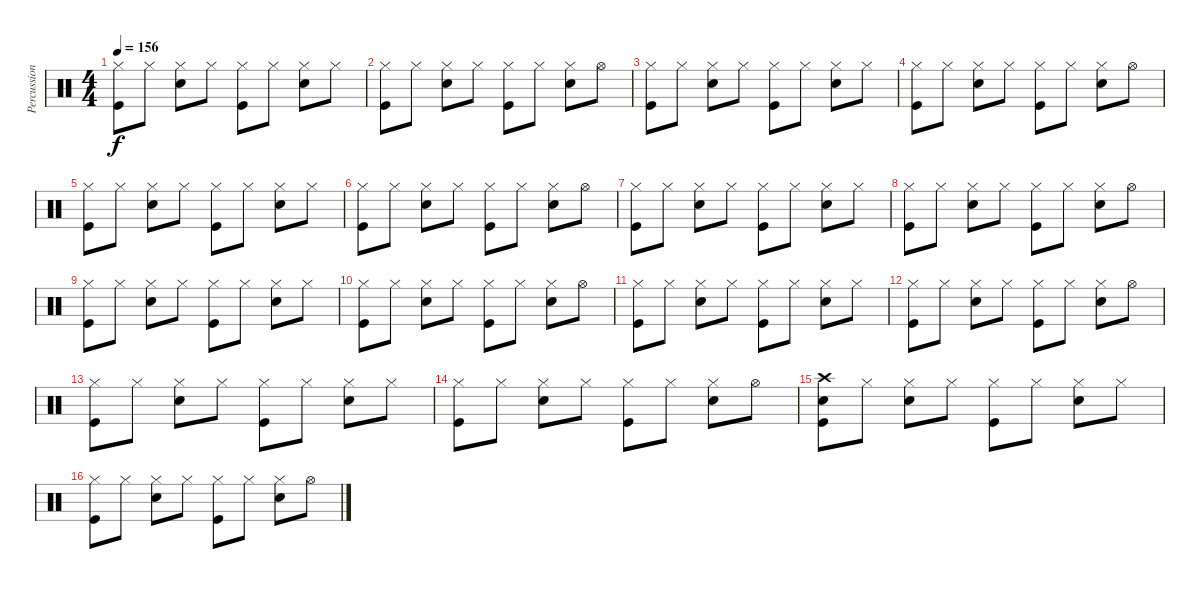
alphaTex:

\track ("Percussion" "Percussion") {instrument percussion}
\staff {score}
\articulation defaults
\ts (4 4)
\tempo 156
\clef neutral
\ks c
("Kick (hit)" "Hi-Hat (closed)").8{dy f} "Hi-Hat (closed)".8 ("Electric Snare (hit)" "Hi-Hat (closed)").8 "Hi-Hat (closed)".8 ("Kick (hit)" "Hi-Hat (closed)").8 "Hi-Hat (closed)".8 ("Electric Snare (hit)" "Hi-Hat (closed)").8 "Hi-Hat (closed)".8 |
("Kick (hit)" "Hi-Hat (closed)").8 "Hi-Hat (closed)".8 ("Electric Snare (hit)" "Hi-Hat (closed)").8 "Hi-Hat (closed)".8 ("Kick (hit)" "Hi-Hat (closed)").8 "Hi-Hat (closed)".8 ("Electric Snare (hit)" "Hi-Hat (closed)").8 "Hi-Hat (open)".8 |
("Kick (hit)" "Hi-Hat (closed)").8 "Hi-Hat (closed)".8 ("Electric Snare (hit)" "Hi-Hat (closed)").8 "Hi-Hat (closed)".8 ("Kick (hit)" "Hi-Hat (closed)").8 "Hi-Hat (closed)".8 ("Electric Snare (hit)" "Hi-Hat (closed)").8 "Hi-Hat (closed)".8 |
("Kick (hit)" "Hi-Hat (closed)").8 "Hi-Hat (closed)".8 ("Electric Snare (hit)" "Hi-Hat (closed)").8 "Hi-Hat (closed)".8 ("Kick (hit)" "Hi-Hat (closed)").8 "Hi-Hat (closed)".8 ("Electric Snare (hit)" "Hi-Hat (closed)").8 "Hi-Hat (open)".8 |
("Kick (hit)" "Hi-Hat (closed)").8 "Hi-Hat (closed)".8 ("Electric Snare (hit)" "Hi-Hat (closed)").8 "Hi-Hat (closed)".8 ("Kick (hit)" "Hi-Hat (closed)").8 "Hi-Hat (closed)".8 ("Electric Snare (hit)" "Hi-Hat (closed)").8 "Hi-Hat (closed)".8 |
("Kick (hit)" "Hi-Hat (closed)").8 "Hi-Hat (closed)".8 ("Electric Snare (hit)" "Hi-Hat (closed)").8 "Hi-Hat (closed)".8 ("Kick (hit)" "Hi-Hat (closed)").8 "Hi-Hat (closed)".8 ("Electric Snare (hit)" "Hi-Hat (closed)").8 "Hi-Hat (open)".8 |
("Kick (hit)" "Hi-Hat (closed)").8 "Hi-Hat (closed)".8 ("Electric Snare (hit)" "Hi-Hat (closed)").8 "Hi-Hat (closed)".8 ("Kick (hit)" "Hi-Hat (closed)").8 "Hi-Hat (closed)".8 ("Electric Snare (hit)" "Hi-Hat (closed)").8 "Hi-Hat (closed)".8 |
("Kick (hit)" "Hi-Hat (closed)").8 "Hi-Hat (closed)".8 ("Electric Snare (hit)" "Hi-Hat (closed)").8 "Hi-Hat (closed)".8 ("Kick (hit)" "Hi-Hat (closed)").8 "Hi-Hat (closed)".8 ("Electric Snare (hit)" "Hi-Hat (closed)").8 "Hi-Hat (open)".8 |
("Kick (hit)" "Hi-Hat (closed)").8 "Hi-Hat (closed)".8 ("Electric Snare (hit)" "Hi-Hat (closed)").8 "Hi-Hat (closed)".8 ("Kick (hit)" "Hi-Hat (closed)").8 "Hi-Hat (closed)".8 ("Electric Snare (hit)" "Hi-Hat (closed)").8 "Hi-Hat (closed)".8 |
("Kick (hit)" "Hi-Hat (closed)").8 "Hi-Hat (closed)".8 ("Electric Snare (hit)" "Hi-Hat (closed)").8 "Hi-Hat (closed)".8 ("Kick (hit)" "Hi-Hat (closed)").8 "Hi-Hat (closed)".8 ("Electric Snare (hit)" "Hi-Hat (closed)").8 "Hi-Hat (open)".8 |
("Kick (hit)" "Hi-Hat (closed)").8 "Hi-Hat (closed)".8 ("Electric Snare (hit)" "Hi-Hat (closed)").8 "Hi-Hat (closed)".8 ("Kick (hit)" "Hi-Hat (closed)").8 "Hi-Hat (closed)".8 ("Electric Snare (hit)" "Hi-Hat (closed)").8 "Hi-Hat (closed)".8 |
("Kick (hit)" "Hi-Hat (closed)").8 "Hi-Hat (closed)".8 ("Electric Snare (hit)" "Hi-Hat (closed)").8 "Hi-Hat (closed)".8 ("Kick (hit)" "Hi-Hat (closed)").8 "Hi-Hat (closed)".8 ("Electric Snare (hit)" "Hi-Hat (closed)").8 "Hi-Hat (open)".8 |
("Kick (hit)" "Hi-Hat (closed)").8 "Hi-Hat (closed)".8 ("Electric Snare (hit)" "Hi-Hat (closed)").8 "Hi-Hat (closed)".8 ("Kick (hit)" "Hi-Hat (closed)").8 "Hi-Hat (closed)".8 ("Electric Snare (hit)" "Hi-Hat (closed)").8 "Hi-Hat (closed)".8 |
("Kick (hit)" "Hi-Hat (closed)").8 "Hi-Hat (closed)".8 ("Electric Snare (hit)" "Hi-Hat (closed)").8 "Hi-Hat (closed)".8 ("Kick (hit)" "Hi-Hat (closed)").8 "Hi-Hat (closed)".8 ("Electric Snare (hit)" "Hi-Hat (closed)").8 "Hi-Hat (open)".8 |
("Kick (hit)" "Snare (hit)" "Crash high (hit)").8 "Hi-Hat (closed)".8 ("Electric Snare (hit)" "Hi-Hat (closed)").8 "Hi-Hat (closed)".8 ("Kick (hit)" "Hi-Hat (closed)").8 "Hi-Hat (closed)".8 ("Electric Snare (hit)" "Hi-Hat (closed)").8 "Hi-Hat (closed)".8 |
("Kick (hit)" "Hi-Hat (closed)").8 "Hi-Hat (closed)".8 ("Electric Snare (hit)" "Hi-Hat (closed)").8 "Hi-Hat (closed)".8 ("Kick (hit)" "Hi-Hat (closed)").8 "Hi-Hat (closed)".8 ("Electric Snare (hit)" "Hi-Hat (closed)").8 "Hi-Hat (open)".8
